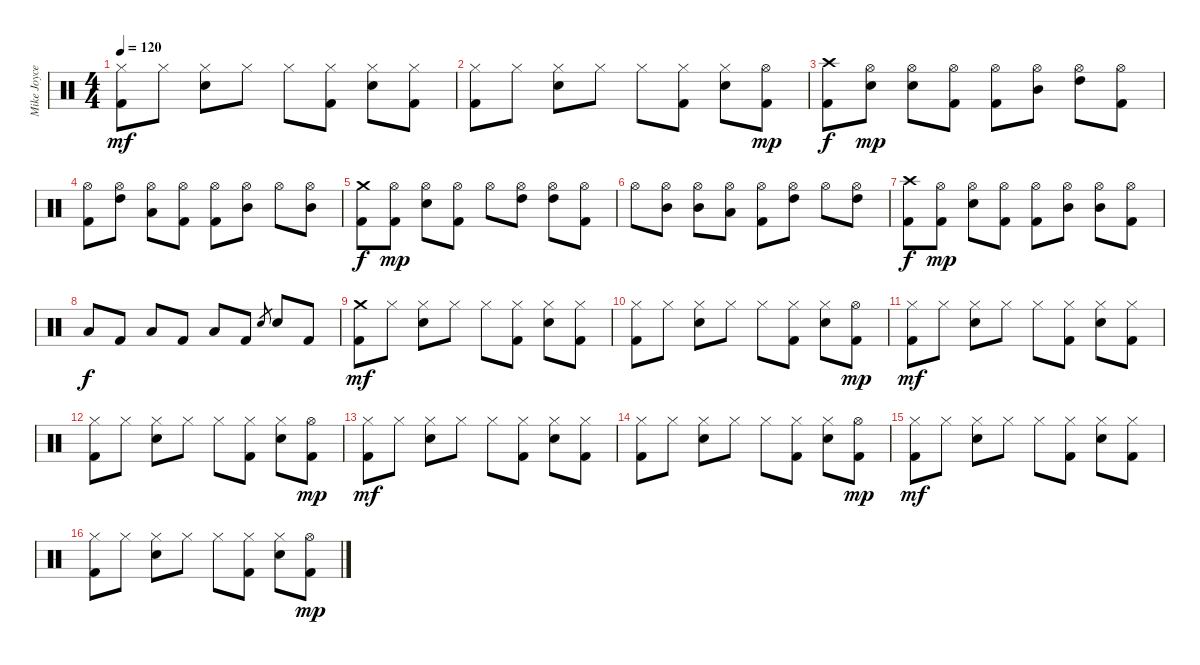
\track ("Mike Joyce" "Mike Joyce") {instrument percussion}
\staff {score}
\articulation defaults
\ts (4 4)
\tempo 120
\clef neutral
\ks c
("Hi-Hat (closed)" "Kick (hit) 2").8{dy mf} "Hi-Hat (closed)".8 ("Hi-Hat (closed)" "Electric Snare (hit)").8 "Hi-Hat (closed)".8 "Hi-Hat (closed)".8 ("Hi-Hat (closed)" "Kick (hit) 2").8 ("Hi-Hat (closed)" "Electric Snare (hit)").8 ("Hi-Hat (closed)" "Kick (hit) 2").8 |
("Hi-Hat (closed)" "Kick (hit) 2").8 "Hi-Hat (closed)".8 ("Hi-Hat (closed)" "Electric Snare (hit)").8 "Hi-Hat (closed)".8 "Hi-Hat (closed)".8 ("Hi-Hat (closed)" "Kick (hit) 2").8 ("Hi-Hat (closed)" "Electric Snare (hit)").8 ("Hi-Hat (open)" "Kick (hit) 2").8{dy mp} |
("Crash high (hit)" "Kick (hit) 2").8{dy f} ("Hi-Hat (open)" "Electric Snare (hit)").8{dy mp} ("Hi-Hat (open)" "Electric Snare (hit)").8 ("Hi-Hat (open)" "Kick (hit) 2").8 ("Hi-Hat (open)" "Kick (hit) 2").8 ("Hi-Hat (open)" "Mid Tom (hit)").8 ("Hi-Hat (open)" "High Tom (hit)").8 ("Hi-Hat (open)" "Kick (hit) 2").8 |
("Hi-Hat (open)" "Kick (hit) 2").8 ("Hi-Hat (open)" "High Tom (hit)").8 ("Hi-Hat (open)" "Low Floor Tom (hit)").8 ("Hi-Hat (open)" "Kick (hit) 2").8 ("Hi-Hat (open)" "Kick (hit) 2").8 ("Hi-Hat (open)" "Mid Tom (hit)").8 "Hi-Hat (open)".8 ("Hi-Hat (open)" "Mid Tom (hit)").8 |
("Crash medium (hit)" "Kick (hit) 2").8{dy f} ("Hi-Hat (open)" "Kick (hit) 2").8{dy mp} ("Hi-Hat (open)" "Electric Snare (hit)").8 ("Hi-Hat (open)" "Kick (hit) 2").8 "Hi-Hat (open)".8 ("Hi-Hat (open)" "High Tom (hit)").8 ("Hi-Hat (open)" "High Tom (hit)").8 ("Hi-Hat (open)" "Kick (hit) 2").8 |
"Hi-Hat (open)".8 ("Hi-Hat (open)" "Mid Tom (hit)").8 ("Hi-Hat (open)" "Mid Tom (hit)").8 ("Hi-Hat (open)" "Low Floor Tom (hit)").8 ("Hi-Hat (open)" "Kick (hit) 2").8 ("Hi-Hat (open)" "High Tom (hit)").8 "Hi-Hat (open)".8 ("Hi-Hat (open)" "High Tom (hit)").8 |
("Crash high (hit)" "Kick (hit) 2").8{dy f} ("Hi-Hat (open)" "Kick (hit) 2").8{dy mp} ("Hi-Hat (open)" "Electric Snare (hit)").8 ("Hi-Hat (open)" "Kick (hit) 2").8 ("Hi-Hat (open)" "Kick (hit) 2").8 ("Hi-Hat (open)" "Mid Tom (hit)").8 ("Hi-Hat (open)" "Mid Tom (hit)").8 ("Hi-Hat (open)" "Kick (hit) 2").8 |
"Low Floor Tom (hit)".8{dy f} "Kick (hit) 2".8 "Low Floor Tom (hit)".8 "Kick (hit) 2".8 "Low Floor Tom (hit)".8 "Kick (hit) 2".8 "Electric Snare (hit)".8{gr} "Electric Snare (hit)".8 "Kick (hit) 2".8 |
("Crash medium (hit)" "Kick (hit) 2").8{dy mf} "Hi-Hat (closed)".8 ("Hi-Hat (closed)" "Electric Snare (hit)").8 "Hi-Hat (closed)".8 "Hi-Hat (closed)".8 ("Hi-Hat (closed)" "Kick (hit) 2").8 ("Hi-Hat (closed)" "Electric Snare (hit)").8 ("Hi-Hat (closed)" "Kick (hit) 2").8 |
("Hi-Hat (closed)" "Kick (hit) 2").8 "Hi-Hat (closed)".8 ("Hi-Hat (closed)" "Electric Snare (hit)").8 "Hi-Hat (closed)".8 "Hi-Hat (closed)".8 ("Hi-Hat (closed)" "Kick (hit) 2").8 ("Hi-Hat (closed)" "Electric Snare (hit)").8 ("Hi-Hat (open)" "Kick (hit) 2").8{dy mp} |
("Hi-Hat (closed)" "Kick (hit) 2").8{dy mf} "Hi-Hat (closed)".8 ("Hi-Hat (closed)" "Electric Snare (hit)").8 "Hi-Hat (closed)".8 "Hi-Hat (closed)".8 ("Hi-Hat (closed)" "Kick (hit) 2").8 ("Hi-Hat (closed)" "Electric Snare (hit)").8 ("Hi-Hat (closed)" "Kick (hit) 2").8 |
("Hi-Hat (closed)" "Kick (hit) 2").8 "Hi-Hat (closed)".8 ("Hi-Hat (closed)" "Electric Snare (hit)").8 "Hi-Hat (closed)".8 "Hi-Hat (closed)".8 ("Hi-Hat (closed)" "Kick (hit) 2").8 ("Hi-Hat (closed)" "Electric Snare (hit)").8 ("Hi-Hat (open)" "Kick (hit) 2").8{dy mp} |
("Hi-Hat (closed)" "Kick (hit) 2").8{dy mf} "Hi-Hat (closed)".8 ("Hi-Hat (closed)" "Electric Snare (hit)").8 "Hi-Hat (closed)".8 "Hi-Hat (closed)".8 ("Hi-Hat (closed)" "Kick (hit) 2").8 ("Hi-Hat (closed)" "Electric Snare (hit)").8 ("Hi-Hat (closed)" "Kick (hit) 2").8 |
("Hi-Hat (closed)" "Kick (hit) 2").8 "Hi-Hat (closed)".8 ("Hi-Hat (closed)" "Electric Snare (hit)").8 "Hi-Hat (closed)".8 "Hi-Hat (closed)".8 ("Hi-Hat (closed)" "Kick (hit) 2").8 ("Hi-Hat (closed)" "Electric Snare (hit)").8 ("Hi-Hat (open)" "Kick (hit) 2").8{dy mp} |
("Hi-Hat (closed)" "Kick (hit) 2").8{dy mf} "Hi-Hat (closed)".8 ("Hi-Hat (closed)" "Electric Snare (hit)").8 "Hi-Hat (closed)".8 "Hi-Hat (closed)".8 ("Hi-Hat (closed)" "Kick (hit) 2").8 ("Hi-Hat (closed)" "Electric Snare (hit)").8 ("Hi-Hat (closed)" "Kick (hit) 2").8 |
("Hi-Hat (closed)" "Kick (hit) 2").8 "Hi-Hat (closed)".8 ("Hi-Hat (closed)" "Electric Snare (hit)").8 "Hi-Hat (closed)".8 "Hi-Hat (closed)".8 ("Hi-Hat (closed)" "Kick (hit) 2").8 ("Hi-Hat (closed)" "Electric Snare (hit)").8 ("Hi-Hat (open)" "Kick (hit) 2").8{dy mp}
